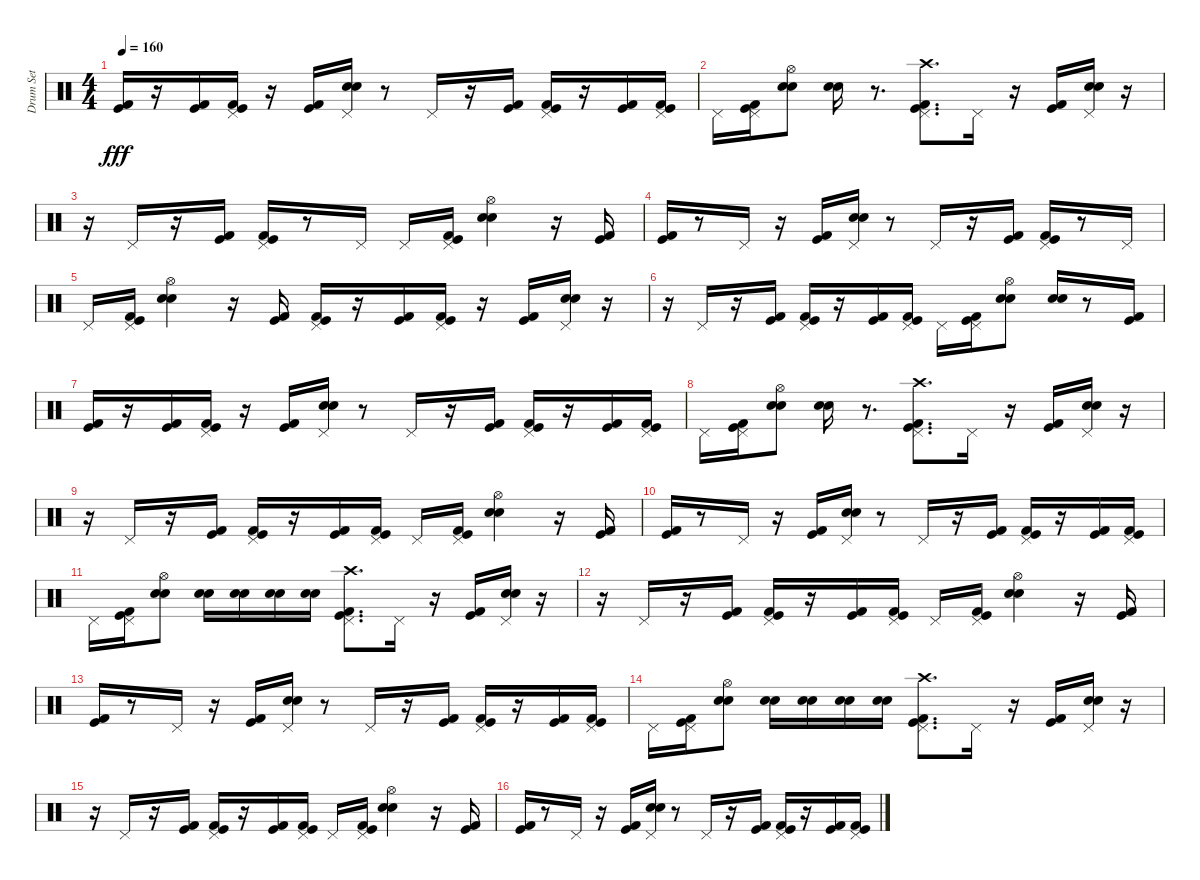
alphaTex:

\track ("Drum Set" "Drum Set") {instrument percussion}
\staff {score}
\articulation defaults
\ts (4 4)
\tempo 160
\clef neutral
\ks c
("Kick (hit)" "Kick (hit) 2").16{dy fff} r.16 ("Kick (hit)" "Kick (hit) 2").16 ("Pedal Hi-Hat (hit)" "Kick (hit)" "Kick (hit) 2").16 r.16 ("Kick (hit)" "Kick (hit) 2").16 ("Pedal Hi-Hat (hit)" "Electric Snare (hit)" "Snare (hit) 2").16 r.8 "Pedal Hi-Hat (hit)".16 r.16 ("Kick (hit)" "Kick (hit) 2").16 ("Pedal Hi-Hat (hit)" "Kick (hit)" "Kick (hit) 2").16 r.16 ("Kick (hit)" "Kick (hit) 2").16 ("Pedal Hi-Hat (hit)" "Kick (hit) 2" "Kick (hit)").16 |
"Pedal Hi-Hat (hit)".16 ("Pedal Hi-Hat (hit)" "Kick (hit)" "Kick (hit) 2").16 ("Hi-Hat (open)" "Snare (hit) 2" "Electric Snare (hit)").8 ("Electric Snare (hit)" "Snare (hit) 2").16 r.8{d} ("Crash high (hit)" "Kick (hit) 2" "Kick (hit)" "Pedal Hi-Hat (hit)").8{d} "Pedal Hi-Hat (hit)".16 r.16 ("Kick (hit) 2" "Kick (hit)").16 ("Electric Snare (hit)" "Snare (hit) 2" "Pedal Hi-Hat (hit)").16 r.16 |
r.16 "Pedal Hi-Hat (hit)".16 r.16 ("Kick (hit)" "Kick (hit) 2").16 ("Kick (hit)" "Kick (hit) 2" "Pedal Hi-Hat (hit)").16 r.8 "Pedal Hi-Hat (hit)".16 "Pedal Hi-Hat (hit)".16 ("Kick (hit)" "Kick (hit) 2" "Pedal Hi-Hat (hit)").16 ("Electric Snare (hit)" "Snare (hit) 2" "Hi-Hat (open)").4 r.16 ("Kick (hit)" "Kick (hit) 2").16 |
("Kick (hit) 2" "Kick (hit)").16 r.8 "Pedal Hi-Hat (hit)".16 r.16 ("Kick (hit) 2" "Kick (hit)").16 ("Pedal Hi-Hat (hit)" "Electric Snare (hit)" "Snare (hit) 2").16 r.8 "Pedal Hi-Hat (hit)".16 r.16 ("Kick (hit)" "Kick (hit) 2").16 ("Pedal Hi-Hat (hit)" "Kick (hit)" "Kick (hit) 2").16 r.8 "Pedal Hi-Hat (hit)".16 |
"Pedal Hi-Hat (hit)".16 ("Pedal Hi-Hat (hit)" "Kick (hit)" "Kick (hit) 2").16 ("Hi-Hat (open)" "Electric Snare (hit)" "Snare (hit) 2").4 r.16 ("Kick (hit)" "Kick (hit) 2").16 ("Kick (hit)" "Kick (hit) 2" "Pedal Hi-Hat (hit)").16 r.16 ("Kick (hit)" "Kick (hit) 2").16 ("Kick (hit)" "Kick (hit) 2" "Pedal Hi-Hat (hit)").16 r.16 ("Kick (hit)" "Kick (hit) 2").16 ("Electric Snare (hit)" "Snare (hit) 2" "Pedal Hi-Hat (hit)").16 r.16 |
r.16 "Pedal Hi-Hat (hit)".16 r.16 ("Kick (hit)" "Kick (hit) 2").16 ("Kick (hit)" "Kick (hit) 2" "Pedal Hi-Hat (hit)").16 r.16 ("Kick (hit)" "Kick (hit) 2").16 ("Kick (hit) 2" "Kick (hit)" "Pedal Hi-Hat (hit)").16 "Pedal Hi-Hat (hit)".16 ("Kick (hit)" "Kick (hit) 2" "Pedal Hi-Hat (hit)").16 ("Snare (hit) 2" "Electric Snare (hit)" "Hi-Hat (open)").8 ("Electric Snare (hit)" "Snare (hit) 2").16 r.8 ("Kick (hit)" "Kick (hit) 2").16 |
("Kick (hit)" "Kick (hit) 2").16 r.16 ("Kick (hit)" "Kick (hit) 2").16 ("Pedal Hi-Hat (hit)" "Kick (hit)" "Kick (hit) 2").16 r.16 ("Kick (hit)" "Kick (hit) 2").16 ("Pedal Hi-Hat (hit)" "Electric Snare (hit)" "Snare (hit) 2").16 r.8 "Pedal Hi-Hat (hit)".16 r.16 ("Kick (hit)" "Kick (hit) 2").16 ("Pedal Hi-Hat (hit)" "Kick (hit)" "Kick (hit) 2").16 r.16 ("Kick (hit)" "Kick (hit) 2").16 ("Pedal Hi-Hat (hit)" "Kick (hit) 2" "Kick (hit)").16 |
"Pedal Hi-Hat (hit)".16 ("Pedal Hi-Hat (hit)" "Kick (hit)" "Kick (hit) 2").16 ("Hi-Hat (open)" "Snare (hit) 2" "Electric Snare (hit)").8 ("Electric Snare (hit)" "Snare (hit) 2").16 r.8{d} ("Kick (hit)" "Kick (hit) 2" "Crash high (hit)" "Pedal Hi-Hat (hit)").8{d} "Pedal Hi-Hat (hit)".16 r.16 ("Kick (hit) 2" "Kick (hit)").16 ("Electric Snare (hit)" "Snare (hit) 2" "Pedal Hi-Hat (hit)").16 r.16 |
r.16 "Pedal Hi-Hat (hit)".16 r.16 ("Kick (hit) 2" "Kick (hit)").16 ("Kick (hit)" "Kick (hit) 2" "Pedal Hi-Hat (hit)").16 r.16 ("Kick (hit) 2" "Kick (hit)").16 ("Kick (hit)" "Kick (hit) 2" "Pedal Hi-Hat (hit)").16 "Pedal Hi-Hat (hit)".16 ("Kick (hit)" "Kick (hit) 2" "Pedal Hi-Hat (hit)").16 ("Snare (hit) 2" "Electric Snare (hit)" "Hi-Hat (open)").4 r.16 ("Kick (hit)" "Kick (hit) 2").16 |
("Kick (hit)" "Kick (hit) 2").16 r.8 "Pedal Hi-Hat (hit)".16 r.16 ("Kick (hit) 2" "Kick (hit)").16 ("Snare (hit) 2" "Electric Snare (hit)" "Pedal Hi-Hat (hit)").16 r.8 "Pedal Hi-Hat (hit)".16 r.16 ("Kick (hit)" "Kick (hit) 2").16 ("Kick (hit)" "Kick (hit) 2" "Pedal Hi-Hat (hit)").16 r.16 ("Kick (hit)" "Kick (hit) 2").16 ("Kick (hit)" "Kick (hit) 2" "Pedal Hi-Hat (hit)").16 |
"Pedal Hi-Hat (hit)".16 ("Kick (hit) 2" "Kick (hit)" "Pedal Hi-Hat (hit)").16 ("Snare (hit) 2" "Electric Snare (hit)" "Hi-Hat (open)").8 ("Snare (hit) 2" "Electric Snare (hit)").16 ("Electric Snare (hit)" "Snare (hit) 2").16 ("Snare (hit) 2" "Electric Snare (hit)").16 ("Electric Snare (hit)" "Snare (hit) 2").16 ("Kick (hit)" "Kick (hit) 2" "Crash high (hit)" "Pedal Hi-Hat (hit)").8{d} "Pedal Hi-Hat (hit)".16 r.16 ("Kick (hit) 2" "Kick (hit)").16 ("Electric Snare (hit)" "Snare (hit) 2" "Pedal Hi-Hat (hit)").16 r.16 |
r.16 "Pedal Hi-Hat (hit)".16 r.16 ("Kick (hit) 2" "Kick (hit)").16 ("Kick (hit)" "Kick (hit) 2" "Pedal Hi-Hat (hit)").16 r.16 ("Kick (hit) 2" "Kick (hit)").16 ("Kick (hit)" "Kick (hit) 2" "Pedal Hi-Hat (hit)").16 "Pedal Hi-Hat (hit)".16 ("Kick (hit)" "Kick (hit) 2" "Pedal Hi-Hat (hit)").16 ("Snare (hit) 2" "Electric Snare (hit)" "Hi-Hat (open)").4 r.16 ("Kick (hit)" "Kick (hit) 2").16 |
("Kick (hit)" "Kick (hit) 2").16 r.8 "Pedal Hi-Hat (hit)".16 r.16 ("Kick (hit) 2" "Kick (hit)").16 ("Snare (hit) 2" "Electric Snare (hit)" "Pedal Hi-Hat (hit)").16 r.8 "Pedal Hi-Hat (hit)".16 r.16 ("Kick (hit)" "Kick (hit) 2").16 ("Kick (hit)" "Kick (hit) 2" "Pedal Hi-Hat (hit)").16 r.16 ("Kick (hit)" "Kick (hit) 2").16 ("Kick (hit)" "Kick (hit) 2" "Pedal Hi-Hat (hit)").16 |
"Pedal Hi-Hat (hit)".16 ("Kick (hit) 2" "Kick (hit)" "Pedal Hi-Hat (hit)").16 ("Snare (hit) 2" "Electric Snare (hit)" "Hi-Hat (open)").8 ("Snare (hit) 2" "Electric Snare (hit)").16 ("Electric Snare (hit)" "Snare (hit) 2").16 ("Snare (hit) 2" "Electric Snare (hit)").16 ("Electric Snare (hit)" "Snare (hit) 2").16 ("Kick (hit)" "Kick (hit) 2" "Crash high (hit)" "Pedal Hi-Hat (hit)").8{d} "Pedal Hi-Hat (hit)".16 r.16 ("Kick (hit) 2" "Kick (hit)").16 ("Electric Snare (hit)" "Snare (hit) 2" "Pedal Hi-Hat (hit)").16 r.16 |
r.16 "Pedal Hi-Hat (hit)".16 r.16 ("Kick (hit) 2" "Kick (hit)").16 ("Kick (hit)" "Kick (hit) 2" "Pedal Hi-Hat (hit)").16 r.16 ("Kick (hit) 2" "Kick (hit)").16 ("Kick (hit)" "Kick (hit) 2" "Pedal Hi-Hat (hit)").16 "Pedal Hi-Hat (hit)".16 ("Kick (hit)" "Kick (hit) 2" "Pedal Hi-Hat (hit)").16 ("Snare (hit) 2" "Electric Snare (hit)" "Hi-Hat (open)").4 r.16 ("Kick (hit)" "Kick (hit) 2").16 |
("Kick (hit)" "Kick (hit) 2").16 r.8 "Pedal Hi-Hat (hit)".16 r.16 ("Kick (hit) 2" "Kick (hit)").16 ("Snare (hit) 2" "Electric Snare (hit)" "Pedal Hi-Hat (hit)").16 r.8 "Pedal Hi-Hat (hit)".16 r.16 ("Kick (hit)" "Kick (hit) 2").16 ("Kick (hit)" "Kick (hit) 2" "Pedal Hi-Hat (hit)").16 r.16 ("Kick (hit)" "Kick (hit) 2").16 ("Kick (hit)" "Kick (hit) 2" "Pedal Hi-Hat (hit)").16
